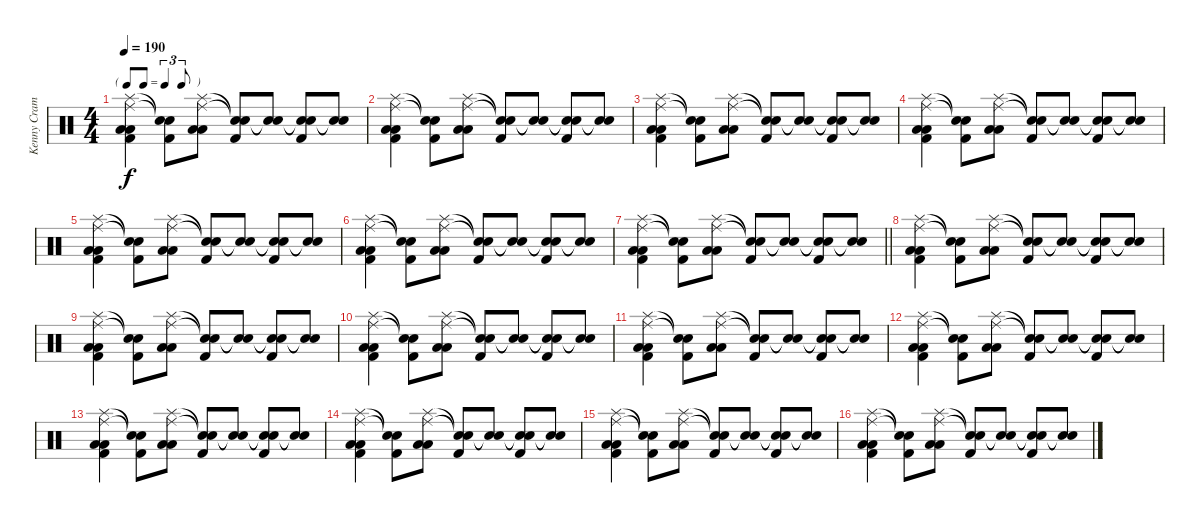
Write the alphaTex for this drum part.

\track ("Kenny Cramme" "Kenny Cram") {instrument percussion}
\staff {score}
\articulation defaults
\ts (4 4)
\tf triplet8th
\tempo 190
\clef neutral
\ks c
("Ride (middle)" "Splash (hit)" "Low Floor Tom (hit)" "Low Floor Tom (hit)" "Kick (hit) 2").4{dy f} ("Snare (hit)"{t} "Snare (hit)"{t} "Kick (hit) 2").8 ("Ride (middle)" "Splash (hit)" "Low Floor Tom (hit)" "Low Floor Tom (hit)").8 ("Snare (hit)"{t} "Snare (hit)"{t} "Kick (hit) 2").8 ("Snare (hit)"{t} "Snare (hit)"{t}).8 ("Snare (hit)"{t} "Snare (hit)"{t} "Kick (hit) 2").8 ("Snare (hit)"{t} "Snare (hit)"{t}).8 |
("Ride (middle)" "Splash (hit)" "Low Floor Tom (hit)" "Low Floor Tom (hit)" "Kick (hit) 2").4 ("Snare (hit)"{t} "Snare (hit)"{t} "Kick (hit) 2").8 ("Ride (middle)" "Splash (hit)" "Low Floor Tom (hit)" "Low Floor Tom (hit)").8 ("Snare (hit)"{t} "Snare (hit)"{t} "Kick (hit) 2").8 ("Snare (hit)"{t} "Snare (hit)"{t}).8 ("Snare (hit)"{t} "Snare (hit)"{t} "Kick (hit) 2").8 ("Snare (hit)"{t} "Snare (hit)"{t}).8 |
("Ride (middle)" "Splash (hit)" "Low Floor Tom (hit)" "Low Floor Tom (hit)" "Kick (hit) 2").4 ("Snare (hit)"{t} "Snare (hit)"{t} "Kick (hit) 2").8 ("Ride (middle)" "Splash (hit)" "Low Floor Tom (hit)" "Low Floor Tom (hit)").8 ("Snare (hit)"{t} "Snare (hit)"{t} "Kick (hit) 2").8 ("Snare (hit)"{t} "Snare (hit)"{t}).8 ("Snare (hit)"{t} "Snare (hit)"{t} "Kick (hit) 2").8 ("Snare (hit)"{t} "Snare (hit)"{t}).8 |
("Ride (middle)" "Splash (hit)" "Low Floor Tom (hit)" "Low Floor Tom (hit)" "Kick (hit) 2").4 ("Snare (hit)"{t} "Snare (hit)"{t} "Kick (hit) 2").8 ("Ride (middle)" "Splash (hit)" "Low Floor Tom (hit)" "Low Floor Tom (hit)").8 ("Snare (hit)"{t} "Snare (hit)"{t} "Kick (hit) 2").8 ("Snare (hit)"{t} "Snare (hit)"{t}).8 ("Snare (hit)"{t} "Snare (hit)"{t} "Kick (hit) 2").8 ("Snare (hit)"{t} "Snare (hit)"{t}).8 |
("Ride (middle)" "Splash (hit)" "Low Floor Tom (hit)" "Low Floor Tom (hit)" "Kick (hit) 2").4 ("Snare (hit)"{t} "Snare (hit)"{t} "Kick (hit) 2").8 ("Ride (middle)" "Splash (hit)" "Low Floor Tom (hit)" "Low Floor Tom (hit)").8 ("Snare (hit)"{t} "Snare (hit)"{t} "Kick (hit) 2").8 ("Snare (hit)"{t} "Snare (hit)"{t}).8 ("Snare (hit)"{t} "Snare (hit)"{t} "Kick (hit) 2").8 ("Snare (hit)"{t} "Snare (hit)"{t}).8 |
("Ride (middle)" "Splash (hit)" "Low Floor Tom (hit)" "Low Floor Tom (hit)" "Kick (hit) 2").4 ("Snare (hit)"{t} "Snare (hit)"{t} "Kick (hit) 2").8 ("Ride (middle)" "Splash (hit)" "Low Floor Tom (hit)" "Low Floor Tom (hit)").8 ("Snare (hit)"{t} "Snare (hit)"{t} "Kick (hit) 2").8 ("Snare (hit)"{t} "Snare (hit)"{t}).8 ("Snare (hit)"{t} "Snare (hit)"{t} "Kick (hit) 2").8 ("Snare (hit)"{t} "Snare (hit)"{t}).8 |
\barLineRight lightlight
("Ride (middle)" "Splash (hit)" "Low Floor Tom (hit)" "Low Floor Tom (hit)" "Kick (hit) 2").4 ("Snare (hit)"{t} "Snare (hit)"{t} "Kick (hit) 2").8 ("Ride (middle)" "Splash (hit)" "Low Floor Tom (hit)" "Low Floor Tom (hit)").8 ("Snare (hit)"{t} "Snare (hit)"{t} "Kick (hit) 2").8 ("Snare (hit)"{t} "Snare (hit)"{t}).8 ("Snare (hit)"{t} "Snare (hit)"{t} "Kick (hit) 2").8 ("Snare (hit)"{t} "Snare (hit)"{t}).8 |
("Ride (middle)" "Splash (hit)" "Low Floor Tom (hit)" "Low Floor Tom (hit)" "Kick (hit) 2").4 ("Snare (hit)"{t} "Snare (hit)"{t} "Kick (hit) 2").8 ("Ride (middle)" "Splash (hit)" "Low Floor Tom (hit)" "Low Floor Tom (hit)").8 ("Snare (hit)"{t} "Snare (hit)"{t} "Kick (hit) 2").8 ("Snare (hit)"{t} "Snare (hit)"{t}).8 ("Snare (hit)"{t} "Snare (hit)"{t} "Kick (hit) 2").8 ("Snare (hit)"{t} "Snare (hit)"{t}).8 |
("Ride (middle)" "Splash (hit)" "Low Floor Tom (hit)" "Low Floor Tom (hit)" "Kick (hit) 2").4 ("Snare (hit)"{t} "Snare (hit)"{t} "Kick (hit) 2").8 ("Ride (middle)" "Splash (hit)" "Low Floor Tom (hit)" "Low Floor Tom (hit)").8 ("Snare (hit)"{t} "Snare (hit)"{t} "Kick (hit) 2").8 ("Snare (hit)"{t} "Snare (hit)"{t}).8 ("Snare (hit)"{t} "Snare (hit)"{t} "Kick (hit) 2").8 ("Snare (hit)"{t} "Snare (hit)"{t}).8 |
("Ride (middle)" "Splash (hit)" "Low Floor Tom (hit)" "Low Floor Tom (hit)" "Kick (hit) 2").4 ("Snare (hit)"{t} "Snare (hit)"{t} "Kick (hit) 2").8 ("Ride (middle)" "Splash (hit)" "Low Floor Tom (hit)" "Low Floor Tom (hit)").8 ("Snare (hit)"{t} "Snare (hit)"{t} "Kick (hit) 2").8 ("Snare (hit)"{t} "Snare (hit)"{t}).8 ("Snare (hit)"{t} "Snare (hit)"{t} "Kick (hit) 2").8 ("Snare (hit)"{t} "Snare (hit)"{t}).8 |
("Ride (middle)" "Splash (hit)" "Low Floor Tom (hit)" "Low Floor Tom (hit)" "Kick (hit) 2").4 ("Snare (hit)"{t} "Snare (hit)"{t} "Kick (hit) 2").8 ("Ride (middle)" "Splash (hit)" "Low Floor Tom (hit)" "Low Floor Tom (hit)").8 ("Snare (hit)"{t} "Snare (hit)"{t} "Kick (hit) 2").8 ("Snare (hit)"{t} "Snare (hit)"{t}).8 ("Snare (hit)"{t} "Snare (hit)"{t} "Kick (hit) 2").8 ("Snare (hit)"{t} "Snare (hit)"{t}).8 |
("Ride (middle)" "Splash (hit)" "Low Floor Tom (hit)" "Low Floor Tom (hit)" "Kick (hit) 2").4 ("Snare (hit)"{t} "Snare (hit)"{t} "Kick (hit) 2").8 ("Ride (middle)" "Splash (hit)" "Low Floor Tom (hit)" "Low Floor Tom (hit)").8 ("Snare (hit)"{t} "Snare (hit)"{t} "Kick (hit) 2").8 ("Snare (hit)"{t} "Snare (hit)"{t}).8 ("Snare (hit)"{t} "Snare (hit)"{t} "Kick (hit) 2").8 ("Snare (hit)"{t} "Snare (hit)"{t}).8 |
("Ride (middle)" "Splash (hit)" "Low Floor Tom (hit)" "Low Floor Tom (hit)" "Kick (hit) 2").4 ("Snare (hit)"{t} "Snare (hit)"{t} "Kick (hit) 2").8 ("Ride (middle)" "Splash (hit)" "Low Floor Tom (hit)" "Low Floor Tom (hit)").8 ("Snare (hit)"{t} "Snare (hit)"{t} "Kick (hit) 2").8 ("Snare (hit)"{t} "Snare (hit)"{t}).8 ("Snare (hit)"{t} "Snare (hit)"{t} "Kick (hit) 2").8 ("Snare (hit)"{t} "Snare (hit)"{t}).8 |
("Ride (middle)" "Splash (hit)" "Low Floor Tom (hit)" "Low Floor Tom (hit)" "Kick (hit) 2").4 ("Snare (hit)"{t} "Snare (hit)"{t} "Kick (hit) 2").8 ("Ride (middle)" "Splash (hit)" "Low Floor Tom (hit)" "Low Floor Tom (hit)").8 ("Snare (hit)"{t} "Snare (hit)"{t} "Kick (hit) 2").8 ("Snare (hit)"{t} "Snare (hit)"{t}).8 ("Snare (hit)"{t} "Snare (hit)"{t} "Kick (hit) 2").8 ("Snare (hit)"{t} "Snare (hit)"{t}).8 |
("Ride (middle)" "Splash (hit)" "Low Floor Tom (hit)" "Low Floor Tom (hit)" "Kick (hit) 2").4 ("Snare (hit)"{t} "Snare (hit)"{t} "Kick (hit) 2").8 ("Ride (middle)" "Splash (hit)" "Low Floor Tom (hit)" "Low Floor Tom (hit)").8 ("Snare (hit)"{t} "Snare (hit)"{t} "Kick (hit) 2").8 ("Snare (hit)"{t} "Snare (hit)"{t}).8 ("Snare (hit)"{t} "Snare (hit)"{t} "Kick (hit) 2").8 ("Snare (hit)"{t} "Snare (hit)"{t}).8 |
("Ride (middle)" "Splash (hit)" "Low Floor Tom (hit)" "Low Floor Tom (hit)" "Kick (hit) 2").4 ("Snare (hit)"{t} "Snare (hit)"{t} "Kick (hit) 2").8 ("Ride (middle)" "Splash (hit)" "Low Floor Tom (hit)" "Low Floor Tom (hit)").8 ("Snare (hit)"{t} "Snare (hit)"{t} "Kick (hit) 2").8 ("Snare (hit)"{t} "Snare (hit)"{t}).8 ("Snare (hit)"{t} "Snare (hit)"{t} "Kick (hit) 2").8 ("Snare (hit)"{t} "Snare (hit)"{t}).8
